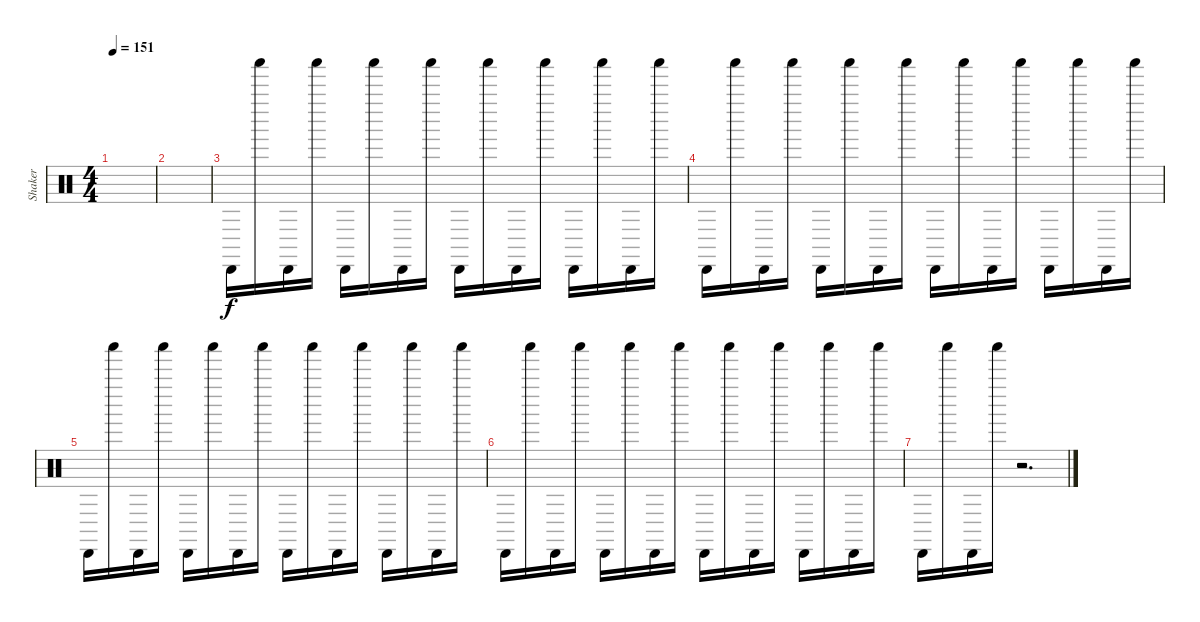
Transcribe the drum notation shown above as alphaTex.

\track ("Shaker" "Shaker") {instrument percussion}
\staff {score}
\articulation defaults
\ts (4 4)
\tempo 151
\clef neutral
\ks c
|
|
"Cabasa (hit)".16 "Shaker (hit)".16 "Cabasa (hit)".16 "Shaker (hit)".16 "Cabasa (hit)".16 "Shaker (hit)".16 "Cabasa (hit)".16 "Shaker (hit)".16 "Cabasa (hit)".16 "Shaker (hit)".16 "Cabasa (hit)".16 "Shaker (hit)".16 "Cabasa (hit)".16 "Shaker (hit)".16 "Cabasa (hit)".16 "Shaker (hit)".16 |
"Cabasa (hit)".16 "Shaker (hit)".16 "Cabasa (hit)".16 "Shaker (hit)".16 "Cabasa (hit)".16 "Shaker (hit)".16 "Cabasa (hit)".16 "Shaker (hit)".16 "Cabasa (hit)".16 "Shaker (hit)".16 "Cabasa (hit)".16 "Shaker (hit)".16 "Cabasa (hit)".16 "Shaker (hit)".16 "Cabasa (hit)".16 "Shaker (hit)".16 |
"Cabasa (hit)".16 "Shaker (hit)".16 "Cabasa (hit)".16 "Shaker (hit)".16 "Cabasa (hit)".16 "Shaker (hit)".16 "Cabasa (hit)".16 "Shaker (hit)".16 "Cabasa (hit)".16 "Shaker (hit)".16 "Cabasa (hit)".16 "Shaker (hit)".16 "Cabasa (hit)".16 "Shaker (hit)".16 "Cabasa (hit)".16 "Shaker (hit)".16 |
"Cabasa (hit)".16 "Shaker (hit)".16 "Cabasa (hit)".16 "Shaker (hit)".16 "Cabasa (hit)".16 "Shaker (hit)".16 "Cabasa (hit)".16 "Shaker (hit)".16 "Cabasa (hit)".16 "Shaker (hit)".16 "Cabasa (hit)".16 "Shaker (hit)".16 "Cabasa (hit)".16 "Shaker (hit)".16 "Cabasa (hit)".16 "Shaker (hit)".16 |
"Cabasa (hit)".16 "Shaker (hit)".16 "Cabasa (hit)".16 "Shaker (hit)".16 r.2{d}
